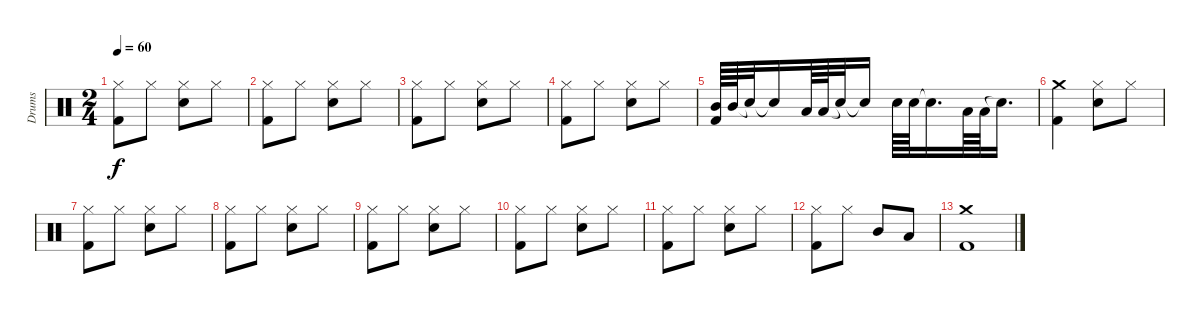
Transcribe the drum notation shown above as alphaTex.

\track ("Drums" "Drums") {instrument percussion}
\staff {score}
\articulation defaults
\ts (2 4)
\tempo 60
\clef neutral
\ks c
("Hi-Hat (closed)" "Kick (hit) 2").8{dy f} "Hi-Hat (closed)".8 ("Hi-Hat (closed)" "Electric Snare (hit)").8 "Hi-Hat (closed)".8 |
("Hi-Hat (closed)" "Kick (hit) 2").8 "Hi-Hat (closed)".8 ("Hi-Hat (closed)" "Electric Snare (hit)").8 "Hi-Hat (closed)".8 |
("Hi-Hat (closed)" "Kick (hit) 2").8 "Hi-Hat (closed)".8 ("Hi-Hat (closed)" "Electric Snare (hit)").8 "Hi-Hat (closed)".8 |
("Hi-Hat (closed)" "Kick (hit) 2").8 "Hi-Hat (closed)".8 ("Hi-Hat (closed)" "Electric Snare (hit)").8 "Hi-Hat (closed)".8 |
("Mid Tom (hit)" "Kick (hit) 2").64 "Mid Tom (hit)".64 "Snare (hit)"{t}.32 "Snare (hit)"{t}.16 "Low Tom (hit)".64 "Low Tom (hit)".64 "Snare (hit)"{t}.32 "Snare (hit)"{t}.16 "Electric Snare (hit)".64 "Electric Snare (hit)".64 "Snare (hit)"{t}.16{d} "Low Tom (hit)".64 "Low Tom (hit)".64 "Snare (hit)"{t}.16{d} |
("Crash medium (hit)" "Kick (hit) 2").4 ("Hi-Hat (closed)" "Electric Snare (hit)").8 "Hi-Hat (closed)".8 |
("Hi-Hat (closed)" "Kick (hit) 2").8 "Hi-Hat (closed)".8 ("Hi-Hat (closed)" "Electric Snare (hit)").8 "Hi-Hat (closed)".8 |
("Hi-Hat (closed)" "Kick (hit) 2").8 "Hi-Hat (closed)".8 ("Hi-Hat (closed)" "Electric Snare (hit)").8 "Hi-Hat (closed)".8 |
("Hi-Hat (closed)" "Kick (hit) 2").8 "Hi-Hat (closed)".8 ("Hi-Hat (closed)" "Electric Snare (hit)").8 "Hi-Hat (closed)".8 |
("Hi-Hat (closed)" "Kick (hit) 2").8 "Hi-Hat (closed)".8 ("Hi-Hat (closed)" "Electric Snare (hit)").8 "Hi-Hat (closed)".8 |
("Hi-Hat (closed)" "Kick (hit) 2").8 "Hi-Hat (closed)".8 ("Hi-Hat (closed)" "Electric Snare (hit)").8 "Hi-Hat (closed)".8 |
("Hi-Hat (closed)" "Kick (hit) 2").8 "Hi-Hat (closed)".8 "Mid Tom (hit)".8 "Low Tom (hit)".8 |
("Crash medium (hit)" "Kick (hit) 2").1
